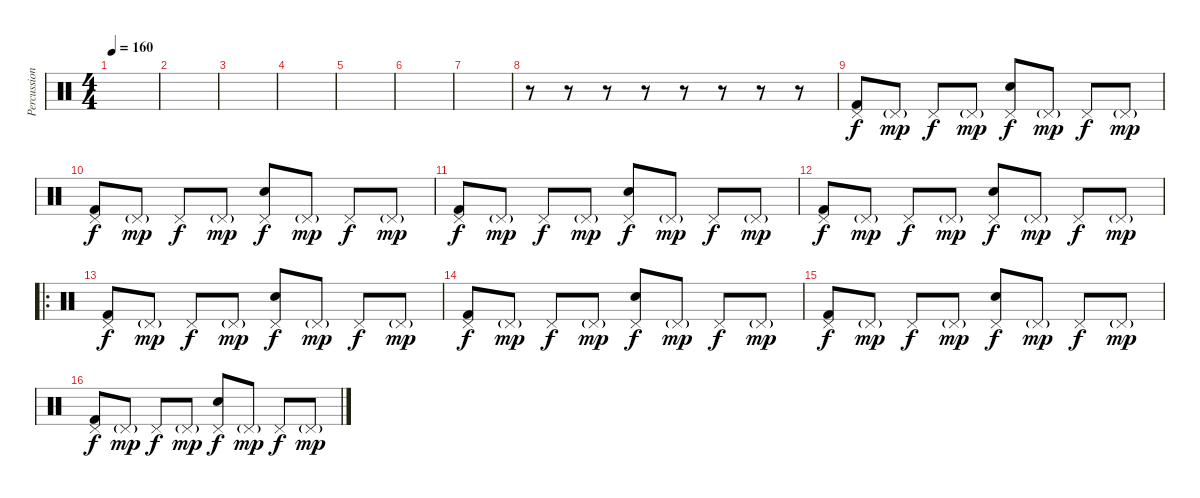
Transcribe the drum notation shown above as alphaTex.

\track ("Percussion" "Percussion") {instrument percussion}
\staff {score}
\articulation defaults
\ts (4 4)
\tempo 160
\clef neutral
\ks c
|
|
|
|
|
|
|
r.8 r.8 r.8 r.8 r.8 r.8 r.8 r.8 |
("Pedal Hi-Hat (hit)" "Kick (hit) 2").8 "Pedal Hi-Hat (hit)"{g}.8{dy mp} "Pedal Hi-Hat (hit)".8{dy f} "Pedal Hi-Hat (hit)"{g}.8{dy mp} ("Pedal Hi-Hat (hit)" "Electric Snare (hit)").8{dy f} "Pedal Hi-Hat (hit)"{g}.8{dy mp} "Pedal Hi-Hat (hit)".8{dy f} "Pedal Hi-Hat (hit)"{g}.8{dy mp} |
("Pedal Hi-Hat (hit)" "Kick (hit) 2").8{dy f} "Pedal Hi-Hat (hit)"{g}.8{dy mp} "Pedal Hi-Hat (hit)".8{dy f} "Pedal Hi-Hat (hit)"{g}.8{dy mp} ("Pedal Hi-Hat (hit)" "Electric Snare (hit)").8{dy f} "Pedal Hi-Hat (hit)"{g}.8{dy mp} "Pedal Hi-Hat (hit)".8{dy f} "Pedal Hi-Hat (hit)"{g}.8{dy mp} |
("Pedal Hi-Hat (hit)" "Kick (hit) 2").8{dy f} "Pedal Hi-Hat (hit)"{g}.8{dy mp} "Pedal Hi-Hat (hit)".8{dy f} "Pedal Hi-Hat (hit)"{g}.8{dy mp} ("Pedal Hi-Hat (hit)" "Electric Snare (hit)").8{dy f} "Pedal Hi-Hat (hit)"{g}.8{dy mp} "Pedal Hi-Hat (hit)".8{dy f} "Pedal Hi-Hat (hit)"{g}.8{dy mp} |
("Pedal Hi-Hat (hit)" "Kick (hit) 2").8{dy f} "Pedal Hi-Hat (hit)"{g}.8{dy mp} "Pedal Hi-Hat (hit)".8{dy f} "Pedal Hi-Hat (hit)"{g}.8{dy mp} ("Pedal Hi-Hat (hit)" "Electric Snare (hit)").8{dy f} "Pedal Hi-Hat (hit)"{g}.8{dy mp} "Pedal Hi-Hat (hit)".8{dy f} "Pedal Hi-Hat (hit)"{g}.8{dy mp} |
\ro
("Pedal Hi-Hat (hit)" "Kick (hit) 2").8{dy f} "Pedal Hi-Hat (hit)"{g}.8{dy mp} "Pedal Hi-Hat (hit)".8{dy f} "Pedal Hi-Hat (hit)"{g}.8{dy mp} ("Pedal Hi-Hat (hit)" "Electric Snare (hit)").8{dy f} "Pedal Hi-Hat (hit)"{g}.8{dy mp} "Pedal Hi-Hat (hit)".8{dy f} "Pedal Hi-Hat (hit)"{g}.8{dy mp} |
("Pedal Hi-Hat (hit)" "Kick (hit) 2").8{dy f} "Pedal Hi-Hat (hit)"{g}.8{dy mp} "Pedal Hi-Hat (hit)".8{dy f} "Pedal Hi-Hat (hit)"{g}.8{dy mp} ("Pedal Hi-Hat (hit)" "Electric Snare (hit)").8{dy f} "Pedal Hi-Hat (hit)"{g}.8{dy mp} "Pedal Hi-Hat (hit)".8{dy f} "Pedal Hi-Hat (hit)"{g}.8{dy mp} |
("Pedal Hi-Hat (hit)" "Kick (hit) 2").8{dy f} "Pedal Hi-Hat (hit)"{g}.8{dy mp} "Pedal Hi-Hat (hit)".8{dy f} "Pedal Hi-Hat (hit)"{g}.8{dy mp} ("Pedal Hi-Hat (hit)" "Electric Snare (hit)").8{dy f} "Pedal Hi-Hat (hit)"{g}.8{dy mp} "Pedal Hi-Hat (hit)".8{dy f} "Pedal Hi-Hat (hit)"{g}.8{dy mp} |
("Pedal Hi-Hat (hit)" "Kick (hit) 2").8{dy f} "Pedal Hi-Hat (hit)"{g}.8{dy mp} "Pedal Hi-Hat (hit)".8{dy f} "Pedal Hi-Hat (hit)"{g}.8{dy mp} ("Pedal Hi-Hat (hit)" "Electric Snare (hit)").8{dy f} "Pedal Hi-Hat (hit)"{g}.8{dy mp} "Pedal Hi-Hat (hit)".8{dy f} "Pedal Hi-Hat (hit)"{g}.8{dy mp}
